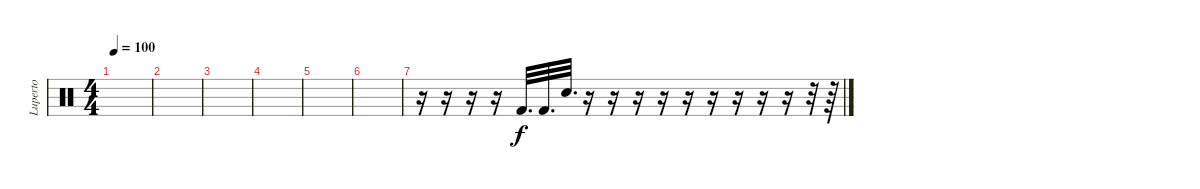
\track ("Luperto" "Luperto") {instrument percussion}
\staff {score}
\articulation defaults
\ts (4 4)
\tempo 100
\clef neutral
\ks c
|
|
|
|
|
|
r.16 r.16 r.16 r.16 "Kick (hit) 2".32{d} "Kick (hit) 2".32{d} "Snare (hit) 2".32{d} r.16 r.16 r.16 r.16 r.16 r.16 r.16 r.16 r.16 r.32 r.64
